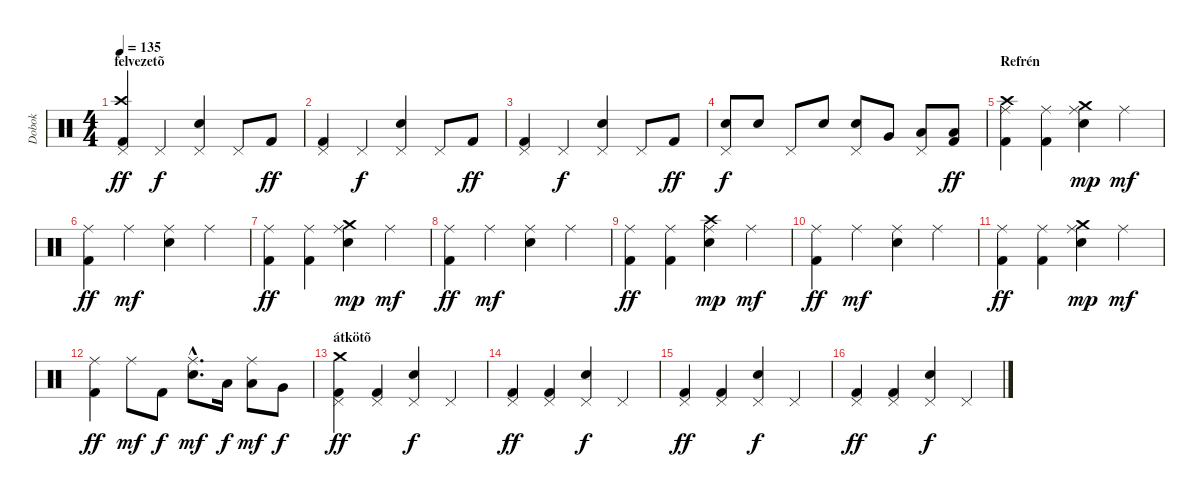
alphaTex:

\track ("Dobok" "Dobok") {instrument percussion}
\staff {score}
\articulation defaults
\ts (4 4)
\section ("" "felvezetõ")
\tempo 135
\clef neutral
\ks c
("Pedal Hi-Hat (hit)" "Crash high (hit)" "Kick (hit) 2").4{dy ff} "Pedal Hi-Hat (hit)".4{dy f} ("Pedal Hi-Hat (hit)" "Electric Snare (hit)").4 "Pedal Hi-Hat (hit)".8 "Kick (hit) 2".8{dy ff} |
("Pedal Hi-Hat (hit)" "Kick (hit) 2").4 "Pedal Hi-Hat (hit)".4{dy f} ("Pedal Hi-Hat (hit)" "Electric Snare (hit)").4 "Pedal Hi-Hat (hit)".8 "Kick (hit) 2".8{dy ff} |
("Pedal Hi-Hat (hit)" "Kick (hit) 2").4 "Pedal Hi-Hat (hit)".4{dy f} ("Pedal Hi-Hat (hit)" "Electric Snare (hit)").4 "Pedal Hi-Hat (hit)".8 "Kick (hit) 2".8{dy ff} |
("Pedal Hi-Hat (hit)" "Electric Snare (hit)").8{dy f} "Electric Snare (hit)".8 "Pedal Hi-Hat (hit)".8 "Electric Snare (hit)".8 ("Pedal Hi-Hat (hit)" "Electric Snare (hit)").8 "Very Low Tom (hit)".8 ("Pedal Hi-Hat (hit)" "Low Floor Tom (hit)").8 ("Low Floor Tom (hit)" "Kick (hit) 2").8{dy ff} |
\section ("" "Refrén")
("Ride (middle)" "Crash high (hit)" "Kick (hit) 2").4 ("Ride (middle)" "Kick (hit) 2").4 ("Ride (middle)" "Crash medium (hit)" "Electric Snare (hit)").4{dy mp} "Ride (middle)".4{dy mf} |
("Ride (middle)" "Kick (hit) 2").4{dy ff} "Ride (middle)".4{dy mf} ("Ride (middle)" "Electric Snare (hit)").4 "Ride (middle)".4 |
("Ride (middle)" "Kick (hit) 2").4{dy ff} ("Ride (middle)" "Kick (hit) 2").4 ("Ride (middle)" "Crash medium (hit)" "Electric Snare (hit)").4{dy mp} "Ride (middle)".4{dy mf} |
("Ride (middle)" "Kick (hit) 2").4{dy ff} "Ride (middle)".4{dy mf} ("Ride (middle)" "Electric Snare (hit)").4 "Ride (middle)".4 |
("Ride (middle)" "Kick (hit) 2").4{dy ff} ("Ride (middle)" "Kick (hit) 2").4 ("Ride (middle)" "Crash high (hit)" "Electric Snare (hit)").4{dy mp} "Ride (middle)".4{dy mf} |
("Ride (middle)" "Kick (hit) 2").4{dy ff} "Ride (middle)".4{dy mf} ("Ride (middle)" "Electric Snare (hit)").4 "Ride (middle)".4 |
("Ride (middle)" "Kick (hit) 2").4{dy ff} ("Ride (middle)" "Kick (hit) 2").4 ("Ride (middle)" "Crash medium (hit)" "Electric Snare (hit)").4{dy mp} "Ride (middle)".4{dy mf} |
("Ride (middle)" "Kick (hit) 2").4{dy ff} "Ride (middle)".8{dy mf} "Kick (hit) 2".8{dy f} ("Ride (middle)"{hac} "Electric Snare (hit)"{hac}).8{d dy mf} "Low Tom (hit)".16{dy f} ("Ride (middle)" "Low Tom (hit)").8{dy mf} "Very Low Tom (hit)".8{dy f} |
\section ("" "átkötõ")
("Pedal Hi-Hat (hit)" "Crash medium (hit)" "Kick (hit) 2").4{dy ff} ("Pedal Hi-Hat (hit)" "Kick (hit) 2").4 ("Pedal Hi-Hat (hit)" "Electric Snare (hit)").4{dy f} "Pedal Hi-Hat (hit)".4 |
("Pedal Hi-Hat (hit)" "Kick (hit) 2").4{dy ff} ("Pedal Hi-Hat (hit)" "Kick (hit) 2").4 ("Pedal Hi-Hat (hit)" "Electric Snare (hit)").4{dy f} "Pedal Hi-Hat (hit)".4 |
("Pedal Hi-Hat (hit)" "Kick (hit) 2").4{dy ff} ("Pedal Hi-Hat (hit)" "Kick (hit) 2").4 ("Pedal Hi-Hat (hit)" "Electric Snare (hit)").4{dy f} "Pedal Hi-Hat (hit)".4 |
("Pedal Hi-Hat (hit)" "Kick (hit) 2").4{dy ff} ("Pedal Hi-Hat (hit)" "Kick (hit) 2").4 ("Pedal Hi-Hat (hit)" "Electric Snare (hit)").4{dy f} "Pedal Hi-Hat (hit)".4
